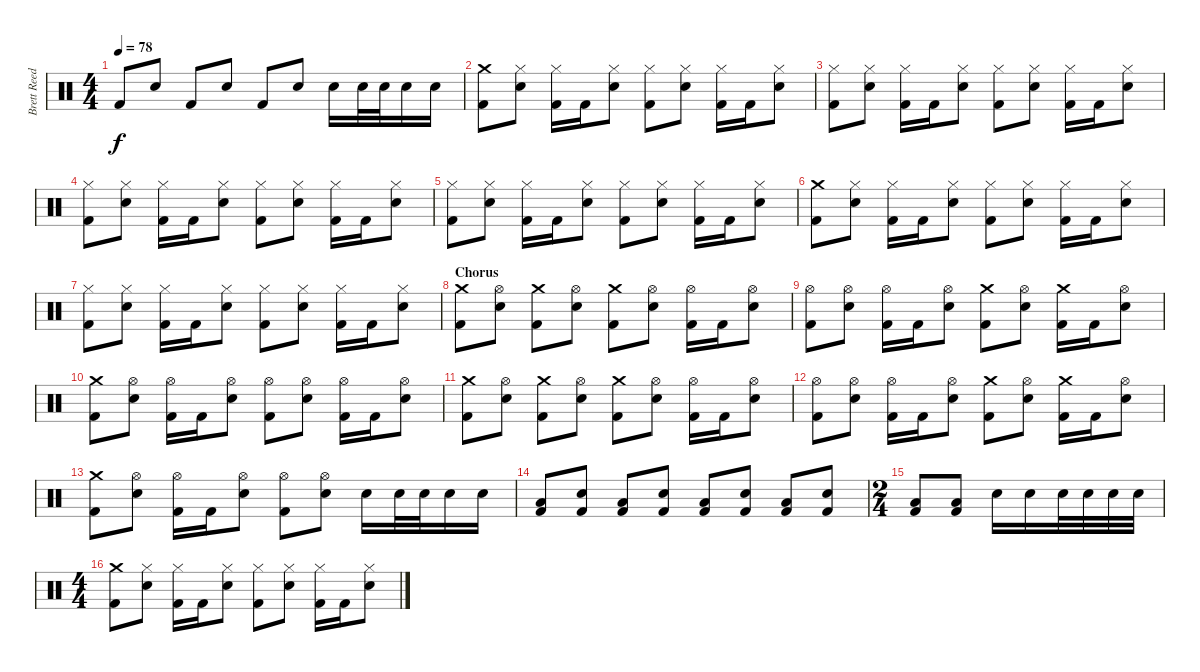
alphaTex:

\track ("Brett Reed" "Brett Reed") {instrument percussion}
\staff {score}
\articulation defaults
\ts (4 4)
\tempo 78
\clef neutral
\ks c "Kick (hit) 2".8{dy f} "Electric Snare (hit)".8 "Kick (hit) 2".8 "Electric Snare (hit)".8 "Kick (hit) 2".8 "Electric Snare (hit)".8 "Electric Snare (hit)".16 "Electric Snare (hit)".32 "Electric Snare (hit)".32 "Electric Snare (hit)".16 "Electric Snare (hit)".16
|
("Crash medium (hit)" "Kick (hit) 2").8 ("Hi-Hat (closed)" "Electric Snare (hit)").8 ("Hi-Hat (closed)" "Kick (hit) 2").16 "Kick (hit) 2".16 ("Hi-Hat (closed)" "Electric Snare (hit)").8 ("Hi-Hat (closed)" "Kick (hit) 2").8 ("Hi-Hat (closed)" "Electric Snare (hit)").8 ("Hi-Hat (closed)" "Kick (hit) 2").16 "Kick (hit) 2".16 ("Hi-Hat (closed)" "Electric Snare (hit)").8 |
("Hi-Hat (closed)" "Kick (hit) 2").8 ("Hi-Hat (closed)" "Electric Snare (hit)").8 ("Hi-Hat (closed)" "Kick (hit) 2").16 "Kick (hit) 2".16 ("Hi-Hat (closed)" "Electric Snare (hit)").8 ("Hi-Hat (closed)" "Kick (hit) 2").8 ("Hi-Hat (closed)" "Electric Snare (hit)").8 ("Hi-Hat (closed)" "Kick (hit) 2").16 "Kick (hit) 2".16 ("Hi-Hat (closed)" "Electric Snare (hit)").8 |
("Hi-Hat (closed)" "Kick (hit) 2").8 ("Hi-Hat (closed)" "Electric Snare (hit)").8 ("Hi-Hat (closed)" "Kick (hit) 2").16 "Kick (hit) 2".16 ("Hi-Hat (closed)" "Electric Snare (hit)").8 ("Hi-Hat (closed)" "Kick (hit) 2").8 ("Hi-Hat (closed)" "Electric Snare (hit)").8 ("Hi-Hat (closed)" "Kick (hit) 2").16 "Kick (hit) 2".16 ("Hi-Hat (closed)" "Electric Snare (hit)").8 |
("Hi-Hat (closed)" "Kick (hit) 2").8 ("Hi-Hat (closed)" "Electric Snare (hit)").8 ("Hi-Hat (closed)" "Kick (hit) 2").16 "Kick (hit) 2".16 ("Hi-Hat (closed)" "Electric Snare (hit)").8 ("Hi-Hat (closed)" "Kick (hit) 2").8 ("Hi-Hat (closed)" "Electric Snare (hit)").8 ("Hi-Hat (closed)" "Kick (hit) 2").16 "Kick (hit) 2".16 ("Hi-Hat (closed)" "Electric Snare (hit)").8 |
("Crash medium (hit)" "Kick (hit) 2").8 ("Hi-Hat (closed)" "Electric Snare (hit)").8 ("Hi-Hat (closed)" "Kick (hit) 2").16 "Kick (hit) 2".16 ("Hi-Hat (closed)" "Electric Snare (hit)").8 ("Hi-Hat (closed)" "Kick (hit) 2").8 ("Hi-Hat (closed)" "Electric Snare (hit)").8 ("Hi-Hat (closed)" "Kick (hit) 2").16 "Kick (hit) 2".16 ("Hi-Hat (closed)" "Electric Snare (hit)").8 |
("Hi-Hat (closed)" "Kick (hit) 2").8 ("Hi-Hat (closed)" "Electric Snare (hit)").8 ("Hi-Hat (closed)" "Kick (hit) 2").16 "Kick (hit) 2".16 ("Hi-Hat (closed)" "Electric Snare (hit)").8 ("Hi-Hat (closed)" "Kick (hit) 2").8 ("Hi-Hat (closed)" "Electric Snare (hit)").8 ("Hi-Hat (closed)" "Kick (hit) 2").16 "Kick (hit) 2".16 ("Hi-Hat (closed)" "Electric Snare (hit)").8 |
\section ("" "Chorus")
("Crash medium (hit)" "Kick (hit) 2").8 ("Hi-Hat (open)" "Electric Snare (hit)").8 ("Crash medium (hit)" "Kick (hit) 2").8 ("Hi-Hat (open)" "Electric Snare (hit)").8 ("Crash medium (hit)" "Kick (hit) 2").8 ("Hi-Hat (open)" "Electric Snare (hit)").8 ("Hi-Hat (open)" "Kick (hit) 2").16 "Kick (hit) 2".16 ("Hi-Hat (open)" "Electric Snare (hit)").8 |
("Hi-Hat (open)" "Kick (hit) 2").8 ("Hi-Hat (open)" "Electric Snare (hit)").8 ("Hi-Hat (open)" "Kick (hit) 2").16 "Kick (hit) 2".16 ("Hi-Hat (open)" "Electric Snare (hit)").8 ("Crash medium (hit)" "Kick (hit) 2").8 ("Hi-Hat (open)" "Electric Snare (hit)").8 ("Crash medium (hit)" "Kick (hit) 2").16 "Kick (hit) 2".16 ("Hi-Hat (open)" "Electric Snare (hit)").8 |
("Crash medium (hit)" "Kick (hit) 2").8 ("Hi-Hat (open)" "Electric Snare (hit)").8 ("Hi-Hat (open)" "Kick (hit) 2").16 "Kick (hit) 2".16 ("Hi-Hat (open)" "Electric Snare (hit)").8 ("Hi-Hat (open)" "Kick (hit) 2").8 ("Hi-Hat (open)" "Electric Snare (hit)").8 ("Hi-Hat (open)" "Kick (hit) 2").16 "Kick (hit) 2".16 ("Hi-Hat (open)" "Electric Snare (hit)").8 |
("Crash medium (hit)" "Kick (hit) 2").8 ("Hi-Hat (open)" "Electric Snare (hit)").8 ("Crash medium (hit)" "Kick (hit) 2").8 ("Hi-Hat (open)" "Electric Snare (hit)").8 ("Crash medium (hit)" "Kick (hit) 2").8 ("Hi-Hat (open)" "Electric Snare (hit)").8 ("Hi-Hat (open)" "Kick (hit) 2").16 "Kick (hit) 2".16 ("Hi-Hat (open)" "Electric Snare (hit)").8 |
("Hi-Hat (open)" "Kick (hit) 2").8 ("Hi-Hat (open)" "Electric Snare (hit)").8 ("Hi-Hat (open)" "Kick (hit) 2").16 "Kick (hit) 2".16 ("Hi-Hat (open)" "Electric Snare (hit)").8 ("Crash medium (hit)" "Kick (hit) 2").8 ("Hi-Hat (open)" "Electric Snare (hit)").8 ("Crash medium (hit)" "Kick (hit) 2").16 "Kick (hit) 2".16 ("Hi-Hat (open)" "Electric Snare (hit)").8 |
("Crash medium (hit)" "Kick (hit) 2").8 ("Hi-Hat (open)" "Electric Snare (hit)").8 ("Hi-Hat (open)" "Kick (hit) 2").16 "Kick (hit) 2".16 ("Hi-Hat (open)" "Electric Snare (hit)").8 ("Hi-Hat (open)" "Kick (hit) 2").8 ("Hi-Hat (open)" "Electric Snare (hit)").8 "Electric Snare (hit)".16 "Electric Snare (hit)".32 "Electric Snare (hit)".32 "Electric Snare (hit)".16 "Electric Snare (hit)".16 |
("Low Floor Tom (hit)" "Kick (hit) 2").8 ("Electric Snare (hit)" "Kick (hit) 2").8 ("Low Floor Tom (hit)" "Kick (hit) 2").8 ("Electric Snare (hit)" "Kick (hit) 2").8 ("Low Floor Tom (hit)" "Kick (hit) 2").8 ("Electric Snare (hit)" "Kick (hit) 2").8 ("Low Floor Tom (hit)" "Kick (hit) 2").8 ("Electric Snare (hit)" "Kick (hit) 2").8 |
\ts (2 4)
("Low Floor Tom (hit)" "Kick (hit) 2").8 ("Low Floor Tom (hit)" "Kick (hit) 2").8 "Snare (hit) 2".16 "Snare (hit) 2".16 "Snare (hit) 2".32 "Snare (hit) 2".32 "Snare (hit) 2".32 "Snare (hit) 2".32 |
\ts (4 4)
("Crash medium (hit)" "Kick (hit) 2").8 ("Hi-Hat (closed)" "Electric Snare (hit)").8 ("Hi-Hat (closed)" "Kick (hit) 2").16 "Kick (hit) 2".16 ("Hi-Hat (closed)" "Electric Snare (hit)").8 ("Hi-Hat (closed)" "Kick (hit) 2").8 ("Hi-Hat (closed)" "Electric Snare (hit)").8 ("Hi-Hat (closed)" "Kick (hit) 2").16 "Kick (hit) 2".16 ("Hi-Hat (closed)" "Electric Snare (hit)").8
